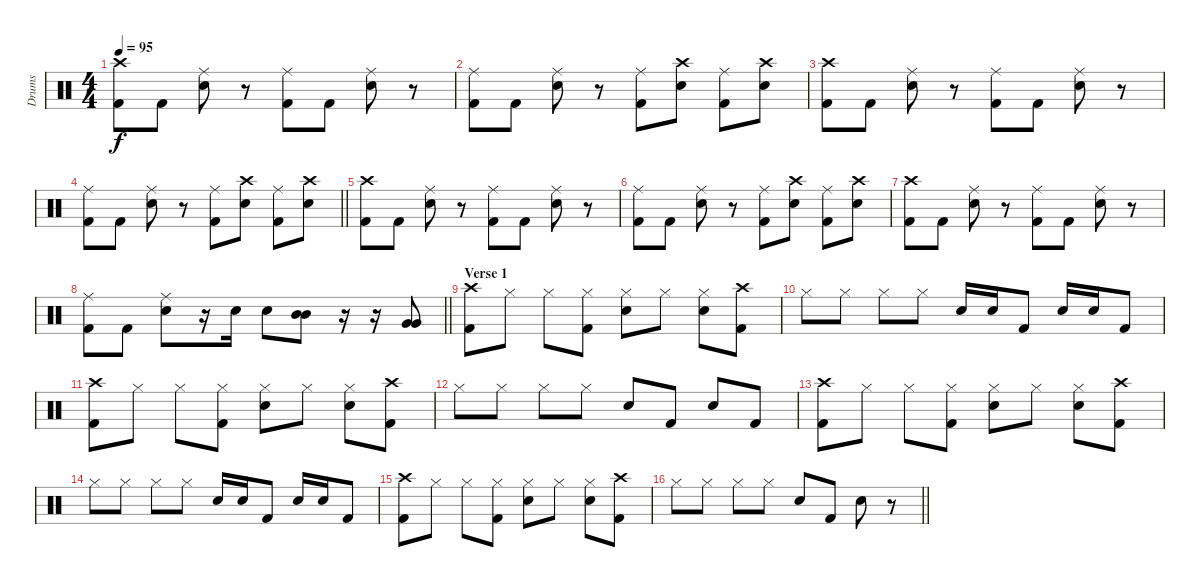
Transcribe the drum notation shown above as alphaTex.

\track ("Drums" "Drums") {instrument percussion}
\staff {score}
\articulation defaults
\ts (4 4)
\tempo 95
\clef neutral
\ks c
("Crash high (hit)" "Kick (hit) 2").8{dy f} "Kick (hit) 2".8 ("Ride (middle)" "Snare (hit) 2").8 r.8 ("Ride (middle)" "Kick (hit) 2").8 "Kick (hit) 2".8 ("Ride (middle)" "Snare (hit) 2").8 r.8 |
("Ride (middle)" "Kick (hit) 2").8 "Kick (hit) 2".8 ("Ride (middle)" "Snare (hit) 2").8 r.8 ("Ride (middle)" "Kick (hit) 2").8 ("Crash high (hit)" "Snare (hit) 2").8 ("Ride (middle)" "Kick (hit) 2").8 ("Crash high (hit)" "Snare (hit) 2").8 |
("Crash high (hit)" "Kick (hit) 2").8 "Kick (hit) 2".8 ("Ride (middle)" "Snare (hit) 2").8 r.8 ("Ride (middle)" "Kick (hit) 2").8 "Kick (hit) 2".8 ("Ride (middle)" "Snare (hit) 2").8 r.8 |
\barLineRight lightlight
("Ride (middle)" "Kick (hit) 2").8 "Kick (hit) 2".8 ("Ride (middle)" "Snare (hit) 2").8 r.8 ("Ride (middle)" "Kick (hit) 2").8 ("Crash high (hit)" "Snare (hit) 2").8 ("Ride (middle)" "Kick (hit) 2").8 ("Crash high (hit)" "Snare (hit) 2").8 |
("Crash high (hit)" "Kick (hit) 2").8 "Kick (hit) 2".8 ("Ride (middle)" "Snare (hit) 2").8 r.8 ("Ride (middle)" "Kick (hit) 2").8 "Kick (hit) 2".8 ("Ride (middle)" "Snare (hit) 2").8 r.8 |
("Ride (middle)" "Kick (hit) 2").8 "Kick (hit) 2".8 ("Ride (middle)" "Snare (hit) 2").8 r.8 ("Ride (middle)" "Kick (hit) 2").8 ("Crash high (hit)" "Snare (hit) 2").8 ("Ride (middle)" "Kick (hit) 2").8 ("Crash high (hit)" "Snare (hit) 2").8 |
("Crash high (hit)" "Kick (hit) 2").8 "Kick (hit) 2".8 ("Ride (middle)" "Snare (hit) 2").8 r.8 ("Ride (middle)" "Kick (hit) 2").8 "Kick (hit) 2".8 ("Ride (middle)" "Snare (hit) 2").8 r.8 |
\barLineRight lightlight
("Ride (middle)" "Kick (hit) 2").8 "Kick (hit) 2".8 ("Ride (middle)" "Snare (hit) 2").8 r.16 "Snare (hit) 2".16 "Snare (hit) 2".8 ("Mid Tom (hit)" "Mid Tom (hit)").8 r.16 r.16 ("Very Low Tom (hit)" "Very Low Tom (hit)").8 |
\section ("" "Verse 1")
("Crash high (hit)" "Kick (hit) 2").8 "Hi-Hat (closed)".8 "Hi-Hat (closed)".8 ("Hi-Hat (closed)" "Kick (hit) 2").8 ("Hi-Hat (closed)" "Snare (hit) 2").8 "Hi-Hat (closed)".8 ("Hi-Hat (closed)" "Snare (hit) 2").8 ("Crash high (hit)" "Kick (hit) 2").8 |
"Hi-Hat (closed)".8 "Hi-Hat (closed)".8 "Hi-Hat (closed)".8 "Hi-Hat (closed)".8 "Snare (hit) 2".16 "Snare (hit) 2".16 "Kick (hit) 2".8 "Snare (hit) 2".16 "Snare (hit) 2".16 "Kick (hit) 2".8 |
("Crash high (hit)" "Kick (hit) 2").8 "Hi-Hat (closed)".8 "Hi-Hat (closed)".8 ("Hi-Hat (closed)" "Kick (hit) 2").8 ("Hi-Hat (closed)" "Snare (hit) 2").8 "Hi-Hat (closed)".8 ("Hi-Hat (closed)" "Snare (hit) 2").8 ("Crash high (hit)" "Kick (hit) 2").8 |
"Hi-Hat (closed)".8 "Hi-Hat (closed)".8 "Hi-Hat (closed)".8 "Hi-Hat (closed)".8 "Snare (hit) 2".8 "Kick (hit) 2".8 "Snare (hit) 2".8 "Kick (hit) 2".8 |
("Crash high (hit)" "Kick (hit) 2").8 "Hi-Hat (closed)".8 "Hi-Hat (closed)".8 ("Hi-Hat (closed)" "Kick (hit) 2").8 ("Hi-Hat (closed)" "Snare (hit) 2").8 "Hi-Hat (closed)".8 ("Hi-Hat (closed)" "Snare (hit) 2").8 ("Crash high (hit)" "Kick (hit) 2").8 |
"Hi-Hat (closed)".8 "Hi-Hat (closed)".8 "Hi-Hat (closed)".8 "Hi-Hat (closed)".8 "Snare (hit) 2".16 "Snare (hit) 2".16 "Kick (hit) 2".8 "Snare (hit) 2".16 "Snare (hit) 2".16 "Kick (hit) 2".8 |
("Crash high (hit)" "Kick (hit) 2").8 "Hi-Hat (closed)".8 "Hi-Hat (closed)".8 ("Hi-Hat (closed)" "Kick (hit) 2").8 ("Hi-Hat (closed)" "Snare (hit) 2").8 "Hi-Hat (closed)".8 ("Hi-Hat (closed)" "Snare (hit) 2").8 ("Crash high (hit)" "Kick (hit) 2").8 |
\barLineRight lightlight "Hi-Hat (closed)".8 "Hi-Hat (closed)".8 "Hi-Hat (closed)".8 "Hi-Hat (closed)".8 "Snare (hit) 2".8 "Kick (hit) 2".8 "Snare (hit) 2".8
r.8
